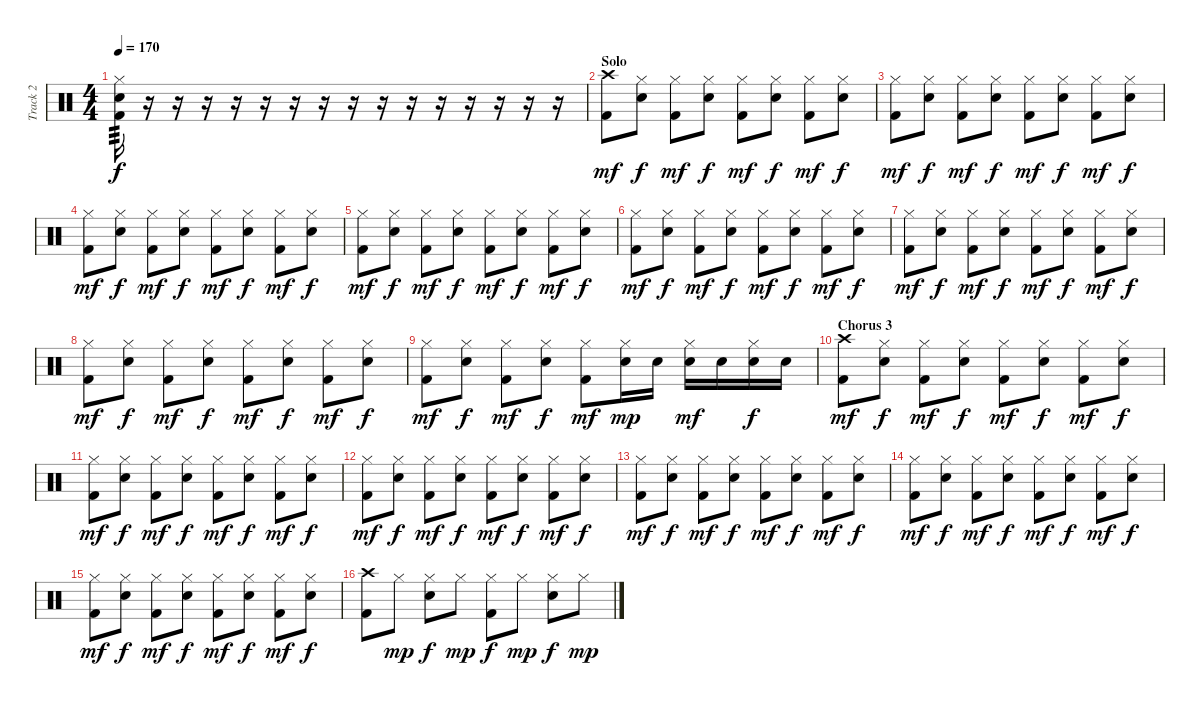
\track ("Track 2" "Track 2") {instrument percussion}
\staff {score}
\articulation defaults
\ts (4 4)
\tempo 170
\clef neutral
\ks c
("Hi-Hat (closed)" "Electric Snare (hit)" "Kick (hit) 2").16{tp 3 dy f} r.16 r.16 r.16 r.16 r.16 r.16 r.16 r.16 r.16 r.16 r.16 r.16 r.16 r.16 r.16 |
\section ("" "Solo")
("Crash high (hit)" "Kick (hit) 2").8{dy mf} ("Hi-Hat (closed)" "Electric Snare (hit)").8{dy f} ("Hi-Hat (closed)" "Kick (hit) 2").8{dy mf} ("Hi-Hat (closed)" "Electric Snare (hit)").8{dy f} ("Hi-Hat (closed)" "Kick (hit) 2").8{dy mf} ("Hi-Hat (closed)" "Electric Snare (hit)").8{dy f} ("Hi-Hat (closed)" "Kick (hit) 2").8{dy mf} ("Hi-Hat (closed)" "Electric Snare (hit)").8{dy f} |
("Hi-Hat (closed)" "Kick (hit) 2").8{dy mf} ("Hi-Hat (closed)" "Electric Snare (hit)").8{dy f} ("Hi-Hat (closed)" "Kick (hit) 2").8{dy mf} ("Hi-Hat (closed)" "Electric Snare (hit)").8{dy f} ("Hi-Hat (closed)" "Kick (hit) 2").8{dy mf} ("Hi-Hat (closed)" "Electric Snare (hit)").8{dy f} ("Hi-Hat (closed)" "Kick (hit) 2").8{dy mf} ("Hi-Hat (closed)" "Electric Snare (hit)").8{dy f} |
("Hi-Hat (closed)" "Kick (hit) 2").8{dy mf} ("Hi-Hat (closed)" "Electric Snare (hit)").8{dy f} ("Hi-Hat (closed)" "Kick (hit) 2").8{dy mf} ("Hi-Hat (closed)" "Electric Snare (hit)").8{dy f} ("Hi-Hat (closed)" "Kick (hit) 2").8{dy mf} ("Hi-Hat (closed)" "Electric Snare (hit)").8{dy f} ("Hi-Hat (closed)" "Kick (hit) 2").8{dy mf} ("Hi-Hat (closed)" "Electric Snare (hit)").8{dy f} |
("Hi-Hat (closed)" "Kick (hit) 2").8{dy mf} ("Hi-Hat (closed)" "Electric Snare (hit)").8{dy f} ("Hi-Hat (closed)" "Kick (hit) 2").8{dy mf} ("Hi-Hat (closed)" "Electric Snare (hit)").8{dy f} ("Hi-Hat (closed)" "Kick (hit) 2").8{dy mf} ("Hi-Hat (closed)" "Electric Snare (hit)").8{dy f} ("Hi-Hat (closed)" "Kick (hit) 2").8{dy mf} ("Hi-Hat (closed)" "Electric Snare (hit)").8{dy f} |
("Hi-Hat (closed)" "Kick (hit) 2").8{dy mf} ("Hi-Hat (closed)" "Electric Snare (hit)").8{dy f} ("Hi-Hat (closed)" "Kick (hit) 2").8{dy mf} ("Hi-Hat (closed)" "Electric Snare (hit)").8{dy f} ("Hi-Hat (closed)" "Kick (hit) 2").8{dy mf} ("Hi-Hat (closed)" "Electric Snare (hit)").8{dy f} ("Hi-Hat (closed)" "Kick (hit) 2").8{dy mf} ("Hi-Hat (closed)" "Electric Snare (hit)").8{dy f} |
("Hi-Hat (closed)" "Kick (hit) 2").8{dy mf} ("Hi-Hat (closed)" "Electric Snare (hit)").8{dy f} ("Hi-Hat (closed)" "Kick (hit) 2").8{dy mf} ("Hi-Hat (closed)" "Electric Snare (hit)").8{dy f} ("Hi-Hat (closed)" "Kick (hit) 2").8{dy mf} ("Hi-Hat (closed)" "Electric Snare (hit)").8{dy f} ("Hi-Hat (closed)" "Kick (hit) 2").8{dy mf} ("Hi-Hat (closed)" "Electric Snare (hit)").8{dy f} |
("Hi-Hat (closed)" "Kick (hit) 2").8{dy mf} ("Hi-Hat (closed)" "Electric Snare (hit)").8{dy f} ("Hi-Hat (closed)" "Kick (hit) 2").8{dy mf} ("Hi-Hat (closed)" "Electric Snare (hit)").8{dy f} ("Hi-Hat (closed)" "Kick (hit) 2").8{dy mf} ("Hi-Hat (closed)" "Electric Snare (hit)").8{dy f} ("Hi-Hat (closed)" "Kick (hit) 2").8{dy mf} ("Hi-Hat (closed)" "Electric Snare (hit)").8{dy f} |
("Hi-Hat (closed)" "Kick (hit) 2").8{dy mf} ("Hi-Hat (closed)" "Electric Snare (hit)").8{dy f} ("Hi-Hat (closed)" "Kick (hit) 2").8{dy mf} ("Hi-Hat (closed)" "Electric Snare (hit)").8{dy f} ("Hi-Hat (closed)" "Kick (hit) 2").8{dy mf} ("Hi-Hat (closed)" "Electric Snare (hit)").16{dy mp} "Electric Snare (hit)".16 ("Hi-Hat (closed)" "Electric Snare (hit)").16{dy mf} "Electric Snare (hit)".16 ("Hi-Hat (closed)" "Electric Snare (hit)").16{dy f} "Electric Snare (hit)".16 |
\section ("" "Chorus 3")
("Crash high (hit)" "Kick (hit) 2").8{dy mf} ("Hi-Hat (closed)" "Electric Snare (hit)").8{dy f} ("Hi-Hat (closed)" "Kick (hit) 2").8{dy mf} ("Hi-Hat (closed)" "Electric Snare (hit)").8{dy f} ("Hi-Hat (closed)" "Kick (hit) 2").8{dy mf} ("Hi-Hat (closed)" "Electric Snare (hit)").8{dy f} ("Hi-Hat (closed)" "Kick (hit) 2").8{dy mf} ("Hi-Hat (closed)" "Electric Snare (hit)").8{dy f} |
("Hi-Hat (closed)" "Kick (hit) 2").8{dy mf} ("Hi-Hat (closed)" "Electric Snare (hit)").8{dy f} ("Hi-Hat (closed)" "Kick (hit) 2").8{dy mf} ("Hi-Hat (closed)" "Electric Snare (hit)").8{dy f} ("Hi-Hat (closed)" "Kick (hit) 2").8{dy mf} ("Hi-Hat (closed)" "Electric Snare (hit)").8{dy f} ("Hi-Hat (closed)" "Kick (hit) 2").8{dy mf} ("Hi-Hat (closed)" "Electric Snare (hit)").8{dy f} |
("Hi-Hat (closed)" "Kick (hit) 2").8{dy mf} ("Hi-Hat (closed)" "Electric Snare (hit)").8{dy f} ("Hi-Hat (closed)" "Kick (hit) 2").8{dy mf} ("Hi-Hat (closed)" "Electric Snare (hit)").8{dy f} ("Hi-Hat (closed)" "Kick (hit) 2").8{dy mf} ("Hi-Hat (closed)" "Electric Snare (hit)").8{dy f} ("Hi-Hat (closed)" "Kick (hit) 2").8{dy mf} ("Hi-Hat (closed)" "Electric Snare (hit)").8{dy f} |
("Hi-Hat (closed)" "Kick (hit) 2").8{dy mf} ("Hi-Hat (closed)" "Electric Snare (hit)").8{dy f} ("Hi-Hat (closed)" "Kick (hit) 2").8{dy mf} ("Hi-Hat (closed)" "Electric Snare (hit)").8{dy f} ("Hi-Hat (closed)" "Kick (hit) 2").8{dy mf} ("Hi-Hat (closed)" "Electric Snare (hit)").8{dy f} ("Hi-Hat (closed)" "Kick (hit) 2").8{dy mf} ("Hi-Hat (closed)" "Electric Snare (hit)").8{dy f} |
("Hi-Hat (closed)" "Kick (hit) 2").8{dy mf} ("Hi-Hat (closed)" "Electric Snare (hit)").8{dy f} ("Hi-Hat (closed)" "Kick (hit) 2").8{dy mf} ("Hi-Hat (closed)" "Electric Snare (hit)").8{dy f} ("Hi-Hat (closed)" "Kick (hit) 2").8{dy mf} ("Hi-Hat (closed)" "Electric Snare (hit)").8{dy f} ("Hi-Hat (closed)" "Kick (hit) 2").8{dy mf} ("Hi-Hat (closed)" "Electric Snare (hit)").8{dy f} |
("Hi-Hat (closed)" "Kick (hit) 2").8{dy mf} ("Hi-Hat (closed)" "Electric Snare (hit)").8{dy f} ("Hi-Hat (closed)" "Kick (hit) 2").8{dy mf} ("Hi-Hat (closed)" "Electric Snare (hit)").8{dy f} ("Hi-Hat (closed)" "Kick (hit) 2").8{dy mf} ("Hi-Hat (closed)" "Electric Snare (hit)").8{dy f} ("Hi-Hat (closed)" "Kick (hit) 2").8{dy mf} ("Hi-Hat (closed)" "Electric Snare (hit)").8{dy f} |
("Crash high (hit)" "Kick (hit) 2").8 "Hi-Hat (closed)".8{dy mp} ("Hi-Hat (closed)" "Electric Snare (hit)").8{dy f} "Hi-Hat (closed)".8{dy mp} ("Hi-Hat (closed)" "Kick (hit) 2").8{dy f} "Hi-Hat (closed)".8{dy mp} ("Hi-Hat (closed)" "Electric Snare (hit)").8{dy f} "Hi-Hat (closed)".8{dy mp}
